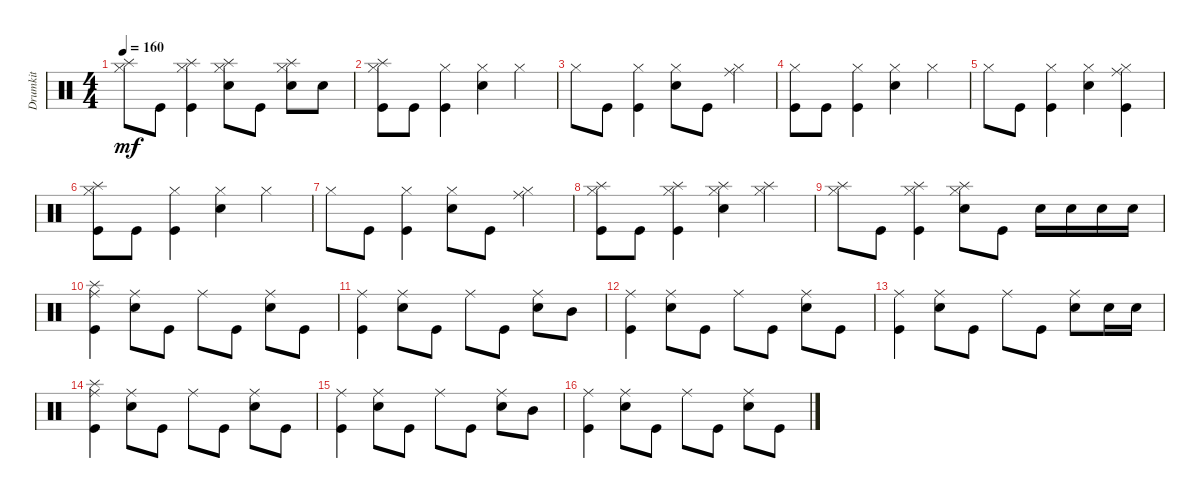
\track ("Drumkit" "Drumkit") {instrument percussion}
\staff {score}
\articulation defaults
\ts (4 4)
\tempo 160
\clef neutral
\ks c
("Hi-Hat (closed)" "Splash (hit)").8{dy mf} "Kick (hit)".8 ("Kick (hit)" "Hi-Hat (closed)" "Splash (hit)").4 ("Snare (hit) 2" "Hi-Hat (closed)" "Splash (hit)").8 "Kick (hit)".8 ("Snare (hit) 2" "Splash (hit)" "Hi-Hat (closed)").8 "Snare (hit) 2".8 |
("Kick (hit)" "Hi-Hat (closed)" "Splash (hit)").8 "Kick (hit)".8 ("Kick (hit)" "Hi-Hat (closed)").4 ("Snare (hit) 2" "Hi-Hat (closed)").4 "Hi-Hat (closed)".4 |
"Hi-Hat (closed)".8 "Kick (hit)".8 ("Kick (hit)" "Hi-Hat (closed)").4 ("Snare (hit) 2" "Hi-Hat (closed)").8 "Kick (hit)".8 ("Hi-Hat (closed)" "Ride (middle)").4 |
("Kick (hit)" "Hi-Hat (closed)").8 "Kick (hit)".8 ("Kick (hit)" "Hi-Hat (closed)").4 ("Snare (hit) 2" "Hi-Hat (closed)").4 "Hi-Hat (closed)".4 |
"Hi-Hat (closed)".8 "Kick (hit)".8 ("Kick (hit)" "Hi-Hat (closed)").4 ("Snare (hit) 2" "Hi-Hat (closed)").4 ("Kick (hit)" "Ride (middle)" "Hi-Hat (closed)").4 |
("Kick (hit)" "Hi-Hat (closed)" "Splash (hit)").8 "Kick (hit)".8 ("Kick (hit)" "Hi-Hat (closed)").4 ("Snare (hit) 2" "Hi-Hat (closed)").4 "Hi-Hat (closed)".4 |
"Hi-Hat (closed)".8 "Kick (hit)".8 ("Kick (hit)" "Hi-Hat (closed)").4 ("Snare (hit) 2" "Hi-Hat (closed)").8 "Kick (hit)".8 ("Hi-Hat (closed)" "Ride (middle)").4 |
("Kick (hit)" "Hi-Hat (closed)" "Splash (hit)").8 "Kick (hit)".8 ("Kick (hit)" "Hi-Hat (closed)" "Splash (hit)").4 ("Snare (hit) 2" "Hi-Hat (closed)" "Splash (hit)").4 ("Hi-Hat (closed)" "Splash (hit)").4 |
("Hi-Hat (closed)" "Splash (hit)").8 "Kick (hit)".8 ("Kick (hit)" "Hi-Hat (closed)" "Splash (hit)").4 ("Snare (hit) 2" "Hi-Hat (closed)" "Splash (hit)").8 "Kick (hit)".8 "Snare (hit) 2".16 "Snare (hit) 2".16 "Snare (hit) 2".16 "Snare (hit) 2".16 |
("Kick (hit)" "Ride (middle)" "Splash (hit)").4 ("Snare (hit) 2" "Ride (middle)").8 "Kick (hit)".8 "Ride (middle)".8 "Kick (hit)".8 ("Snare (hit) 2" "Ride (middle)").8 "Kick (hit)".8 |
("Kick (hit)" "Ride (middle)").4 ("Snare (hit) 2" "Ride (middle)").8 "Kick (hit)".8 "Ride (middle)".8 "Kick (hit)".8 ("Snare (hit) 2" "Ride (middle)").8 "Mid Tom (hit)".8 |
("Kick (hit)" "Ride (middle)").4 ("Snare (hit) 2" "Ride (middle)").8 "Kick (hit)".8 "Ride (middle)".8 "Kick (hit)".8 ("Snare (hit) 2" "Ride (middle)").8 "Kick (hit)".8 |
("Kick (hit)" "Ride (middle)").4 ("Snare (hit) 2" "Ride (middle)").8 "Kick (hit)".8 "Ride (middle)".8 "Kick (hit)".8 ("Snare (hit) 2" "Ride (middle)").8 "Snare (hit) 2".16 "Snare (hit) 2".16 |
("Kick (hit)" "Ride (middle)" "Splash (hit)").4 ("Snare (hit) 2" "Ride (middle)").8 "Kick (hit)".8 "Ride (middle)".8 "Kick (hit)".8 ("Snare (hit) 2" "Ride (middle)").8 "Kick (hit)".8 |
("Kick (hit)" "Ride (middle)").4 ("Snare (hit) 2" "Ride (middle)").8 "Kick (hit)".8 "Ride (middle)".8 "Kick (hit)".8 ("Snare (hit) 2" "Ride (middle)").8 "Mid Tom (hit)".8 |
("Kick (hit)" "Ride (middle)").4 ("Snare (hit) 2" "Ride (middle)").8 "Kick (hit)".8 "Ride (middle)".8 "Kick (hit)".8 ("Snare (hit) 2" "Ride (middle)").8 "Kick (hit)".8
